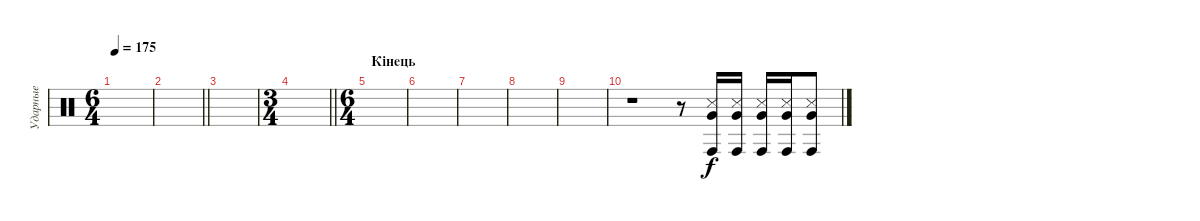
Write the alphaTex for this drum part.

\track ("Ударные" "Ударные") {instrument percussion}
\staff {score}
\articulation defaults
\ts (6 4)
\tempo 175
\clef neutral
\ks c
|
\barLineRight lightlight
|
|
\ts (3 4)
\barLineRight lightlight
|
\ts (6 4)
\section ("" "Кінець")
|
|
|
|
|
r.1 r.8 ("Conga high (hit)" "Metronome (hit)" "Very Low Tom (hit)").16 ("Conga high (hit)" "Metronome (hit)" "Very Low Tom (hit)").16 ("Conga high (hit)" "Metronome (hit)" "Very Low Tom (hit)").16 ("Conga high (hit)" "Metronome (hit)" "Very Low Tom (hit)").16 ("Conga high (hit)" "Metronome (hit)" "Very Low Tom (hit)").8
